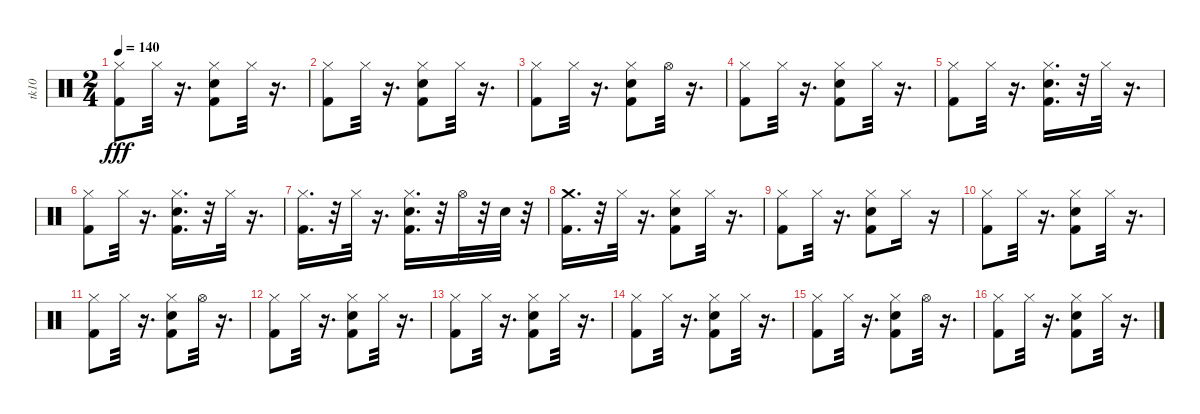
\track ("tk10" "tk10") {instrument percussion}
\staff {score}
\articulation defaults
\ts (2 4)
\tempo 140
\clef neutral
\ks c
("Kick (hit) 2" "Hi-Hat (closed)").8{dy fff} "Hi-Hat (closed)".32 r.16{d} ("Snare (hit) 2" "Kick (hit) 2" "Hi-Hat (closed)").8 "Hi-Hat (closed)".32 r.16{d} |
("Kick (hit) 2" "Hi-Hat (closed)").8 "Hi-Hat (closed)".32 r.16{d} ("Snare (hit) 2" "Kick (hit) 2" "Hi-Hat (closed)").8 "Hi-Hat (closed)".32 r.16{d} |
("Kick (hit) 2" "Hi-Hat (closed)").8 "Hi-Hat (closed)".32 r.16{d} ("Snare (hit) 2" "Kick (hit) 2" "Hi-Hat (closed)").8 "Hi-Hat (open)".32 r.16{d} |
("Kick (hit) 2" "Hi-Hat (closed)").8 "Hi-Hat (closed)".32 r.16{d} ("Hi-Hat (closed)" "Snare (hit) 2" "Kick (hit) 2").8 "Hi-Hat (closed)".32 r.16{d} |
("Kick (hit) 2" "Hi-Hat (closed)").8 "Hi-Hat (closed)".32 r.16{d} ("Snare (hit) 2" "Kick (hit) 2" "Hi-Hat (closed)").16{d} r.32 "Hi-Hat (closed)".32 r.16{d} |
("Kick (hit) 2" "Hi-Hat (closed)").8 "Hi-Hat (closed)".32 r.16{d} ("Snare (hit) 2" "Kick (hit) 2" "Hi-Hat (closed)").16{d} r.32 "Hi-Hat (closed)".32 r.16{d} |
("Kick (hit) 2" "Hi-Hat (closed)").16{d} r.32 "Hi-Hat (closed)".32 r.16{d} ("Snare (hit) 2" "Kick (hit) 2" "Hi-Hat (closed)").16{d} r.32 "Hi-Hat (open)".32 r.32 "Snare (hit) 2".32 r.32 |
("Kick (hit) 2" "Crash medium (hit)").16{d} r.32 "Hi-Hat (closed)".32 r.16{d} ("Kick (hit) 2" "Snare (hit) 2" "Hi-Hat (closed)").8 "Hi-Hat (closed)".32 r.16{d} |
("Kick (hit) 2" "Hi-Hat (closed)").8 "Hi-Hat (closed)".32 r.16{d} ("Kick (hit) 2" "Hi-Hat (closed)" "Snare (hit) 2").8 "Hi-Hat (closed)".16 r.16 |
("Kick (hit) 2" "Hi-Hat (closed)").8 "Hi-Hat (closed)".32 r.16{d} ("Snare (hit) 2" "Kick (hit) 2" "Hi-Hat (closed)").8 "Hi-Hat (closed)".32 r.16{d} |
("Kick (hit) 2" "Hi-Hat (closed)").8 "Hi-Hat (closed)".32 r.16{d} ("Snare (hit) 2" "Hi-Hat (closed)" "Kick (hit) 2").8 "Hi-Hat (open)".32 r.16{d} |
("Kick (hit) 2" "Hi-Hat (closed)").8 "Hi-Hat (closed)".32 r.16{d} ("Hi-Hat (closed)" "Snare (hit) 2" "Kick (hit) 2").8 "Hi-Hat (closed)".32 r.16{d} |
("Kick (hit) 2" "Hi-Hat (closed)").8 "Hi-Hat (closed)".32 r.16{d} ("Snare (hit) 2" "Kick (hit) 2" "Hi-Hat (closed)").8 "Hi-Hat (closed)".32 r.16{d} |
("Kick (hit) 2" "Hi-Hat (closed)").8 "Hi-Hat (closed)".32 r.16{d} ("Hi-Hat (closed)" "Snare (hit) 2" "Kick (hit) 2").8 "Hi-Hat (closed)".32 r.16{d} |
("Kick (hit) 2" "Hi-Hat (closed)").8 "Hi-Hat (closed)".32 r.16{d} ("Kick (hit) 2" "Snare (hit) 2" "Hi-Hat (closed)").8 "Hi-Hat (open)".32 r.16{d} |
("Kick (hit) 2" "Hi-Hat (closed)").8 "Hi-Hat (closed)".32 r.16{d} ("Kick (hit) 2" "Hi-Hat (closed)" "Snare (hit) 2").8 "Hi-Hat (closed)".32 r.16{d}
